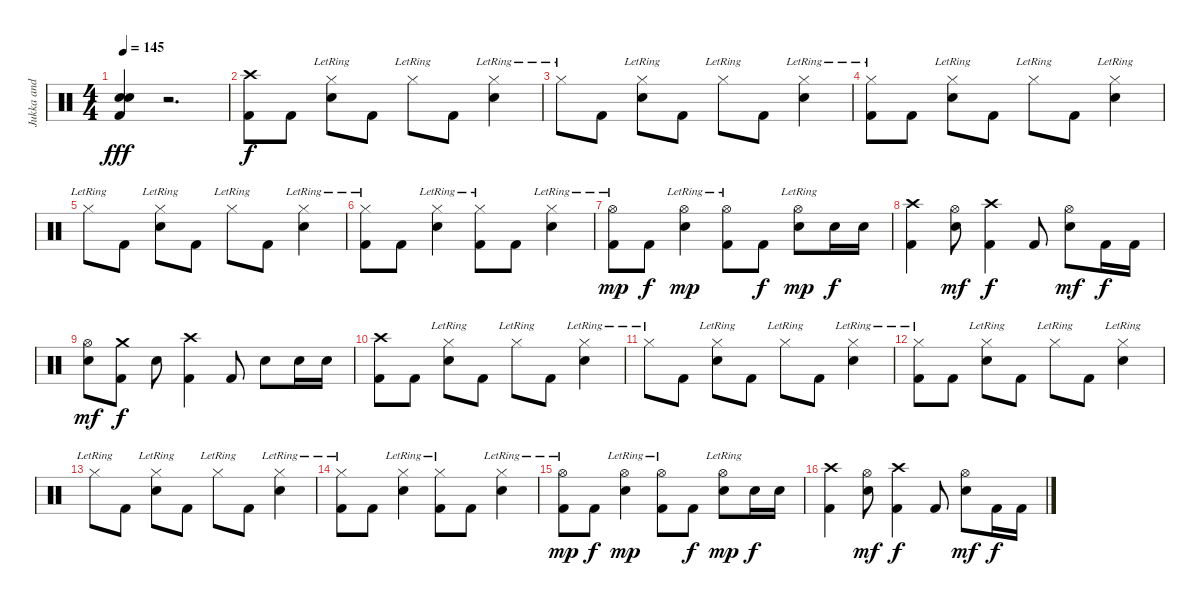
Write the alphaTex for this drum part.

\track ("Jukka and his drums" "Jukka and ") {instrument percussion}
\staff {score}
\articulation defaults
\ts (4 4)
\tempo 145
\clef neutral
\ks c
("Kick (hit) 2" "Snare (hit) 2" "Snare (hit) 2").4{dy fff} r.2{d} |
("Kick (hit) 2" "Crash high (hit)").8{dy f} "Kick (hit) 2".8 ("Hi-Hat (closed)"{lr} "Snare (hit) 2").8 "Kick (hit) 2".8 "Hi-Hat (closed)"{lr}.8 "Kick (hit) 2".8 ("Hi-Hat (closed)"{lr} "Snare (hit) 2").4 |
"Hi-Hat (closed)"{lr}.8 "Kick (hit) 2".8 ("Hi-Hat (closed)"{lr} "Snare (hit) 2").8 "Kick (hit) 2".8 "Hi-Hat (closed)"{lr}.8 "Kick (hit) 2".8 ("Hi-Hat (closed)"{lr} "Snare (hit) 2").4 |
("Kick (hit) 2" "Hi-Hat (closed)"{lr}).8 "Kick (hit) 2".8 ("Hi-Hat (closed)"{lr} "Snare (hit) 2").8 "Kick (hit) 2".8 "Hi-Hat (closed)"{lr}.8 "Kick (hit) 2".8 ("Hi-Hat (closed)"{lr} "Snare (hit) 2").4 |
"Hi-Hat (closed)"{lr}.8 "Kick (hit) 2".8 ("Hi-Hat (closed)"{lr} "Snare (hit) 2").8 "Kick (hit) 2".8 "Hi-Hat (closed)"{lr}.8 "Kick (hit) 2".8 ("Hi-Hat (closed)"{lr} "Snare (hit) 2").4 |
("Kick (hit) 2" "Hi-Hat (closed)"{lr}).8 "Kick (hit) 2".8 ("Hi-Hat (closed)"{lr} "Snare (hit) 2").4 ("Kick (hit) 2" "Hi-Hat (closed)"{lr}).8 "Kick (hit) 2".8 ("Hi-Hat (closed)"{lr} "Snare (hit) 2").4 |
("Kick (hit) 2" "Hi-Hat (open)"{lr}).8{dy mp} "Kick (hit) 2".8{dy f} ("Hi-Hat (open)"{lr} "Snare (hit) 2").4{dy mp} ("Kick (hit) 2" "Hi-Hat (open)"{lr}).8 "Kick (hit) 2".8{dy f} ("Hi-Hat (open)"{lr} "Snare (hit) 2").8{dy mp} "Snare (hit) 2".16{dy f} "Snare (hit) 2".16 |
("Kick (hit) 2" "Crash high (hit)").4 ("Hi-Hat (open)" "Snare (hit) 2").8{dy mf} ("Kick (hit) 2" "Crash high (hit)").4{dy f} "Kick (hit) 2".8 ("Hi-Hat (open)" "Snare (hit) 2").8{dy mf} "Kick (hit) 2".16{dy f} "Kick (hit) 2".16 |
("Hi-Hat (open)" "Snare (hit) 2").8{dy mf} ("Kick (hit) 2" "Crash medium (hit)").8{dy f} "Snare (hit) 2".8 ("Kick (hit) 2" "Crash high (hit)").4 "Kick (hit) 2".8 "Snare (hit) 2".8 "Snare (hit) 2".16 "Snare (hit) 2".16 |
("Kick (hit) 2" "Crash high (hit)").8 "Kick (hit) 2".8 ("Hi-Hat (closed)"{lr} "Snare (hit) 2").8 "Kick (hit) 2".8 "Hi-Hat (closed)"{lr}.8 "Kick (hit) 2".8 ("Hi-Hat (closed)"{lr} "Snare (hit) 2").4 |
"Hi-Hat (closed)"{lr}.8 "Kick (hit) 2".8 ("Hi-Hat (closed)"{lr} "Snare (hit) 2").8 "Kick (hit) 2".8 "Hi-Hat (closed)"{lr}.8 "Kick (hit) 2".8 ("Hi-Hat (closed)"{lr} "Snare (hit) 2").4 |
("Kick (hit) 2" "Hi-Hat (closed)"{lr}).8 "Kick (hit) 2".8 ("Hi-Hat (closed)"{lr} "Snare (hit) 2").8 "Kick (hit) 2".8 "Hi-Hat (closed)"{lr}.8 "Kick (hit) 2".8 ("Hi-Hat (closed)"{lr} "Snare (hit) 2").4 |
"Hi-Hat (closed)"{lr}.8 "Kick (hit) 2".8 ("Hi-Hat (closed)"{lr} "Snare (hit) 2").8 "Kick (hit) 2".8 "Hi-Hat (closed)"{lr}.8 "Kick (hit) 2".8 ("Hi-Hat (closed)"{lr} "Snare (hit) 2").4 |
("Kick (hit) 2" "Hi-Hat (closed)"{lr}).8 "Kick (hit) 2".8 ("Hi-Hat (closed)"{lr} "Snare (hit) 2").4 ("Kick (hit) 2" "Hi-Hat (closed)"{lr}).8 "Kick (hit) 2".8 ("Hi-Hat (closed)"{lr} "Snare (hit) 2").4 |
("Kick (hit) 2" "Hi-Hat (open)"{lr}).8{dy mp} "Kick (hit) 2".8{dy f} ("Hi-Hat (open)"{lr} "Snare (hit) 2").4{dy mp} ("Kick (hit) 2" "Hi-Hat (open)"{lr}).8 "Kick (hit) 2".8{dy f} ("Hi-Hat (open)"{lr} "Snare (hit) 2").8{dy mp} "Snare (hit) 2".16{dy f} "Snare (hit) 2".16 |
("Kick (hit) 2" "Crash high (hit)").4 ("Hi-Hat (open)" "Snare (hit) 2").8{dy mf} ("Kick (hit) 2" "Crash high (hit)").4{dy f} "Kick (hit) 2".8 ("Hi-Hat (open)" "Snare (hit) 2").8{dy mf} "Kick (hit) 2".16{dy f} "Kick (hit) 2".16
